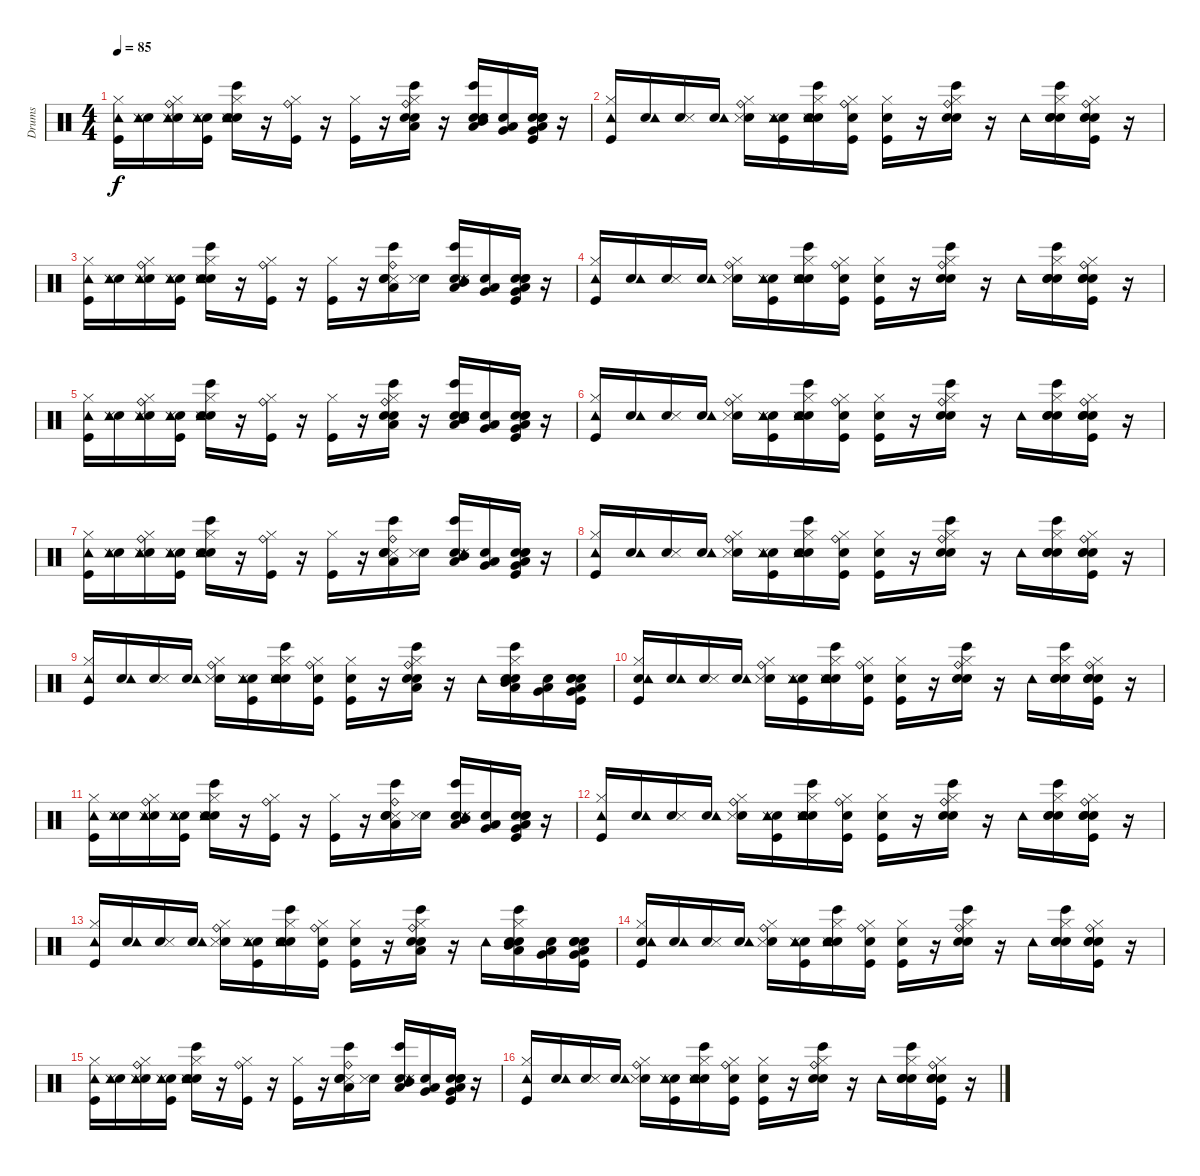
\track ("Drums" "Drums") {instrument percussion}
\staff {score}
\articulation defaults
\ts (4 4)
\tempo 85
\clef neutral
\ks c
("Kick (hit)" "Hi-Hat (closed)" "Tambourine (hit)").16{dy f} ("Snare (hit)" "Metronome (hit)" "Tambourine (hit)").16 ("Snare (hit)" "Metronome (hit)" "Hi-Hat (closed)" "Ride (bell)" "Tambourine (hit)").16 ("Snare (hit)" "Metronome (hit)" "Kick (hit)" "Tambourine (hit)").16 ("Snare (hit)" "Bongo High (hit)" "Metronome (hit)" "Snare (hit) 2" "Hi-Hat (closed)" "Tambourine (hit)").16 r.16 ("Kick (hit)" "Hi-Hat (closed)" "Ride (bell)").16 r.16 ("Kick (hit)" "Hi-Hat (closed)").16 r.16 ("Low Tom (hit)" "Bongo High (hit)" "Snare (hit) 2" "Hand Clap (hit)" "Hi-Hat (closed)" "Ride (bell)").16 r.16 ("Low Tom (hit)" "Mid Tom (hit)" "Bongo High (hit)" "Snare (hit) 2" "Hand Clap (hit)" "Tambourine (hit)").16 ("Snare (hit)" "Low Tom (hit)" "Very Low Tom (hit)").16 ("Snare (hit)" "Very Low Tom (hit)" "Kick (hit)" "Snare (hit) 2" "Hand Clap (hit)" "Low Floor Tom (hit)").16 r.16 |
("Kick (hit)" "Hi-Hat (closed)" "Tambourine (hit)").16 ("Snare (hit)" "Tambourine (hit)").16 ("Snare (hit)" "Metronome (hit)").16 ("Snare (hit)" "Tambourine (hit)").16 ("Snare (hit)" "Metronome (hit)" "Hi-Hat (closed)" "Ride (bell)").16 ("Snare (hit)" "Tambourine (hit)" "Metronome (hit)" "Kick (hit)").16 ("Snare (hit)" "Bongo High (hit)" "Metronome (hit)" "Snare (hit) 2" "Hi-Hat (closed)" "Tambourine (hit)").16 ("Snare (hit)" "Kick (hit)" "Hi-Hat (closed)" "Ride (bell)").16 ("Snare (hit)" "Kick (hit)" "Hi-Hat (closed)").16 r.16 ("Bongo High (hit)" "Snare (hit) 2" "Hand Clap (hit)" "Hi-Hat (closed)" "Ride (bell)").16 r.16 "Tambourine (hit)".16 ("Snare (hit)" "Bongo High (hit)" "Snare (hit) 2" "Hand Clap (hit)" "Hi-Hat (closed)").16 ("Snare (hit)" "Kick (hit)" "Snare (hit) 2" "Hand Clap (hit)" "Hi-Hat (closed)" "Ride (bell)").16 r.16 |
("Kick (hit)" "Hi-Hat (closed)" "Tambourine (hit)").16 ("Snare (hit)" "Metronome (hit)" "Tambourine (hit)").16 ("Snare (hit)" "Metronome (hit)" "Hi-Hat (closed)" "Ride (bell)" "Tambourine (hit)").16 ("Snare (hit)" "Metronome (hit)" "Kick (hit)" "Tambourine (hit)").16 ("Snare (hit)" "Bongo High (hit)" "Metronome (hit)" "Snare (hit) 2" "Hi-Hat (closed)" "Tambourine (hit)").16 r.16 ("Kick (hit)" "Hi-Hat (closed)" "Ride (bell)").16 r.16 ("Kick (hit)" "Hi-Hat (closed)").16 r.16 ("Low Tom (hit)" "Bongo High (hit)" "Metronome (hit)" "Snare (hit) 2" "Hand Clap (hit)" "Ride (bell)").16 ("Snare (hit)" "Metronome (hit)").16 ("Snare (hit)" "Low Tom (hit)" "Mid Tom (hit)" "Bongo High (hit)" "Metronome (hit)" "Tambourine (hit)").16 ("Snare (hit)" "Low Tom (hit)" "Very Low Tom (hit)").16 ("Snare (hit)" "Very Low Tom (hit)" "Kick (hit)" "Snare (hit) 2" "Hand Clap (hit)" "Low Floor Tom (hit)").16 r.16 |
("Kick (hit)" "Hi-Hat (closed)" "Tambourine (hit)").16 ("Snare (hit)" "Tambourine (hit)").16 ("Snare (hit)" "Metronome (hit)").16 ("Snare (hit)" "Tambourine (hit)").16 ("Snare (hit)" "Metronome (hit)" "Hi-Hat (closed)" "Ride (bell)").16 ("Snare (hit)" "Tambourine (hit)" "Metronome (hit)" "Kick (hit)").16 ("Snare (hit)" "Bongo High (hit)" "Metronome (hit)" "Snare (hit) 2" "Hi-Hat (closed)" "Tambourine (hit)").16 ("Snare (hit)" "Kick (hit)" "Hi-Hat (closed)" "Ride (bell)").16 ("Snare (hit)" "Kick (hit)" "Hi-Hat (closed)").16 r.16 ("Bongo High (hit)" "Snare (hit) 2" "Hand Clap (hit)" "Hi-Hat (closed)" "Ride (bell)").16 r.16 "Tambourine (hit)".16 ("Snare (hit)" "Bongo High (hit)" "Snare (hit) 2" "Hand Clap (hit)" "Hi-Hat (closed)").16 ("Snare (hit)" "Kick (hit)" "Snare (hit) 2" "Hand Clap (hit)" "Hi-Hat (closed)" "Ride (bell)").16 r.16 |
("Kick (hit)" "Hi-Hat (closed)" "Tambourine (hit)").16 ("Snare (hit)" "Metronome (hit)" "Tambourine (hit)").16 ("Snare (hit)" "Metronome (hit)" "Hi-Hat (closed)" "Ride (bell)" "Tambourine (hit)").16 ("Snare (hit)" "Metronome (hit)" "Kick (hit)" "Tambourine (hit)").16 ("Snare (hit)" "Bongo High (hit)" "Metronome (hit)" "Snare (hit) 2" "Hi-Hat (closed)" "Tambourine (hit)").16 r.16 ("Kick (hit)" "Hi-Hat (closed)" "Ride (bell)").16 r.16 ("Kick (hit)" "Hi-Hat (closed)").16 r.16 ("Low Tom (hit)" "Bongo High (hit)" "Snare (hit) 2" "Hand Clap (hit)" "Hi-Hat (closed)" "Ride (bell)").16 r.16 ("Low Tom (hit)" "Mid Tom (hit)" "Bongo High (hit)" "Snare (hit) 2" "Hand Clap (hit)" "Tambourine (hit)").16 ("Snare (hit)" "Low Tom (hit)" "Very Low Tom (hit)").16 ("Snare (hit)" "Very Low Tom (hit)" "Kick (hit)" "Snare (hit) 2" "Hand Clap (hit)" "Low Floor Tom (hit)").16 r.16 |
("Kick (hit)" "Hi-Hat (closed)" "Tambourine (hit)").16 ("Snare (hit)" "Tambourine (hit)").16 ("Snare (hit)" "Metronome (hit)").16 ("Snare (hit)" "Tambourine (hit)").16 ("Snare (hit)" "Metronome (hit)" "Hi-Hat (closed)" "Ride (bell)").16 ("Snare (hit)" "Tambourine (hit)" "Metronome (hit)" "Kick (hit)").16 ("Snare (hit)" "Bongo High (hit)" "Metronome (hit)" "Snare (hit) 2" "Hi-Hat (closed)" "Tambourine (hit)").16 ("Snare (hit)" "Kick (hit)" "Hi-Hat (closed)" "Ride (bell)").16 ("Snare (hit)" "Kick (hit)" "Hi-Hat (closed)").16 r.16 ("Bongo High (hit)" "Snare (hit) 2" "Hand Clap (hit)" "Hi-Hat (closed)" "Ride (bell)").16 r.16 "Tambourine (hit)".16 ("Snare (hit)" "Bongo High (hit)" "Snare (hit) 2" "Hand Clap (hit)" "Hi-Hat (closed)").16 ("Snare (hit)" "Kick (hit)" "Snare (hit) 2" "Hand Clap (hit)" "Hi-Hat (closed)" "Ride (bell)").16 r.16 |
("Kick (hit)" "Hi-Hat (closed)" "Tambourine (hit)").16 ("Snare (hit)" "Metronome (hit)" "Tambourine (hit)").16 ("Snare (hit)" "Metronome (hit)" "Hi-Hat (closed)" "Ride (bell)" "Tambourine (hit)").16 ("Snare (hit)" "Metronome (hit)" "Kick (hit)" "Tambourine (hit)").16 ("Snare (hit)" "Bongo High (hit)" "Metronome (hit)" "Snare (hit) 2" "Hi-Hat (closed)" "Tambourine (hit)").16 r.16 ("Kick (hit)" "Hi-Hat (closed)" "Ride (bell)").16 r.16 ("Kick (hit)" "Hi-Hat (closed)").16 r.16 ("Low Tom (hit)" "Bongo High (hit)" "Metronome (hit)" "Snare (hit) 2" "Hand Clap (hit)" "Ride (bell)").16 ("Snare (hit)" "Metronome (hit)").16 ("Snare (hit)" "Low Tom (hit)" "Mid Tom (hit)" "Bongo High (hit)" "Metronome (hit)" "Tambourine (hit)").16 ("Snare (hit)" "Low Tom (hit)" "Very Low Tom (hit)").16 ("Snare (hit)" "Very Low Tom (hit)" "Kick (hit)" "Snare (hit) 2" "Hand Clap (hit)" "Low Floor Tom (hit)").16 r.16 |
("Kick (hit)" "Hi-Hat (closed)" "Tambourine (hit)").16 ("Snare (hit)" "Tambourine (hit)").16 ("Snare (hit)" "Metronome (hit)").16 ("Snare (hit)" "Tambourine (hit)").16 ("Snare (hit)" "Metronome (hit)" "Hi-Hat (closed)" "Ride (bell)").16 ("Snare (hit)" "Tambourine (hit)" "Metronome (hit)" "Kick (hit)").16 ("Snare (hit)" "Bongo High (hit)" "Metronome (hit)" "Snare (hit) 2" "Hi-Hat (closed)" "Tambourine (hit)").16 ("Snare (hit)" "Kick (hit)" "Hi-Hat (closed)" "Ride (bell)").16 ("Snare (hit)" "Kick (hit)" "Hi-Hat (closed)").16 r.16 ("Bongo High (hit)" "Snare (hit) 2" "Hand Clap (hit)" "Hi-Hat (closed)" "Ride (bell)").16 r.16 "Tambourine (hit)".16 ("Snare (hit)" "Bongo High (hit)" "Snare (hit) 2" "Hand Clap (hit)" "Hi-Hat (closed)").16 ("Snare (hit)" "Kick (hit)" "Snare (hit) 2" "Hand Clap (hit)" "Hi-Hat (closed)" "Ride (bell)").16 r.16 |
("Kick (hit)" "Hi-Hat (closed)" "Tambourine (hit)").16 ("Snare (hit)" "Tambourine (hit)").16 ("Snare (hit)" "Metronome (hit)").16 ("Snare (hit)" "Tambourine (hit)").16 ("Snare (hit)" "Metronome (hit)" "Hi-Hat (closed)" "Ride (bell)").16 ("Snare (hit)" "Tambourine (hit)" "Metronome (hit)" "Kick (hit)").16 ("Snare (hit)" "Bongo High (hit)" "Metronome (hit)" "Snare (hit) 2" "Hi-Hat (closed)" "Tambourine (hit)").16 ("Snare (hit)" "Kick (hit)" "Hi-Hat (closed)" "Ride (bell)").16 ("Snare (hit)" "Kick (hit)" "Hi-Hat (closed)").16 r.16 ("Low Tom (hit)" "Bongo High (hit)" "Snare (hit) 2" "Hand Clap (hit)" "Hi-Hat (closed)" "Ride (bell)").16 r.16 "Tambourine (hit)".16 ("Snare (hit)" "Low Tom (hit)" "Mid Tom (hit)" "Bongo High (hit)" "Snare (hit) 2" "Hi-Hat (closed)").16 ("Snare (hit)" "Low Tom (hit)" "Very Low Tom (hit)").16 ("Snare (hit)" "Very Low Tom (hit)" "Kick (hit)" "Snare (hit) 2" "Hand Clap (hit)" "Low Floor Tom (hit)").16 |
("Snare (hit)" "Kick (hit)" "Hi-Hat (closed)" "Tambourine (hit)").16 ("Snare (hit)" "Tambourine (hit)").16 ("Snare (hit)" "Metronome (hit)").16 ("Snare (hit)" "Tambourine (hit)").16 ("Snare (hit)" "Metronome (hit)" "Hi-Hat (closed)" "Ride (bell)").16 ("Snare (hit)" "Tambourine (hit)" "Metronome (hit)" "Kick (hit)").16 ("Snare (hit)" "Bongo High (hit)" "Metronome (hit)" "Snare (hit) 2" "Hi-Hat (closed)" "Tambourine (hit)").16 ("Snare (hit)" "Kick (hit)" "Hi-Hat (closed)" "Ride (bell)").16 ("Snare (hit)" "Kick (hit)" "Hi-Hat (closed)").16 r.16 ("Bongo High (hit)" "Snare (hit) 2" "Hand Clap (hit)" "Hi-Hat (closed)" "Ride (bell)").16 r.16 "Tambourine (hit)".16 ("Snare (hit)" "Bongo High (hit)" "Snare (hit) 2" "Hand Clap (hit)" "Hi-Hat (closed)").16 ("Snare (hit)" "Kick (hit)" "Snare (hit) 2" "Hand Clap (hit)" "Hi-Hat (closed)" "Ride (bell)").16 r.16 |
("Kick (hit)" "Hi-Hat (closed)" "Tambourine (hit)").16 ("Snare (hit)" "Metronome (hit)" "Tambourine (hit)").16 ("Snare (hit)" "Metronome (hit)" "Hi-Hat (closed)" "Ride (bell)" "Tambourine (hit)").16 ("Snare (hit)" "Metronome (hit)" "Kick (hit)" "Tambourine (hit)").16 ("Snare (hit)" "Bongo High (hit)" "Metronome (hit)" "Snare (hit) 2" "Hi-Hat (closed)" "Tambourine (hit)").16 r.16 ("Kick (hit)" "Hi-Hat (closed)" "Ride (bell)").16 r.16 ("Kick (hit)" "Hi-Hat (closed)").16 r.16 ("Low Tom (hit)" "Bongo High (hit)" "Metronome (hit)" "Snare (hit) 2" "Hand Clap (hit)" "Ride (bell)").16 ("Snare (hit)" "Metronome (hit)").16 ("Snare (hit)" "Low Tom (hit)" "Mid Tom (hit)" "Bongo High (hit)" "Metronome (hit)" "Tambourine (hit)").16 ("Snare (hit)" "Low Tom (hit)" "Very Low Tom (hit)").16 ("Snare (hit)" "Very Low Tom (hit)" "Kick (hit)" "Snare (hit) 2" "Hand Clap (hit)" "Low Floor Tom (hit)").16 r.16 |
("Kick (hit)" "Hi-Hat (closed)" "Tambourine (hit)").16 ("Snare (hit)" "Tambourine (hit)").16 ("Snare (hit)" "Metronome (hit)").16 ("Snare (hit)" "Tambourine (hit)").16 ("Snare (hit)" "Metronome (hit)" "Hi-Hat (closed)" "Ride (bell)").16 ("Snare (hit)" "Tambourine (hit)" "Metronome (hit)" "Kick (hit)").16 ("Snare (hit)" "Bongo High (hit)" "Metronome (hit)" "Snare (hit) 2" "Hi-Hat (closed)" "Tambourine (hit)").16 ("Snare (hit)" "Kick (hit)" "Hi-Hat (closed)" "Ride (bell)").16 ("Snare (hit)" "Kick (hit)" "Hi-Hat (closed)").16 r.16 ("Bongo High (hit)" "Snare (hit) 2" "Hand Clap (hit)" "Hi-Hat (closed)" "Ride (bell)").16 r.16 "Tambourine (hit)".16 ("Snare (hit)" "Bongo High (hit)" "Snare (hit) 2" "Hand Clap (hit)" "Hi-Hat (closed)").16 ("Snare (hit)" "Kick (hit)" "Snare (hit) 2" "Hand Clap (hit)" "Hi-Hat (closed)" "Ride (bell)").16 r.16 |
("Kick (hit)" "Hi-Hat (closed)" "Tambourine (hit)").16 ("Snare (hit)" "Tambourine (hit)").16 ("Snare (hit)" "Metronome (hit)").16 ("Snare (hit)" "Tambourine (hit)").16 ("Snare (hit)" "Metronome (hit)" "Hi-Hat (closed)" "Ride (bell)").16 ("Snare (hit)" "Tambourine (hit)" "Metronome (hit)" "Kick (hit)").16 ("Snare (hit)" "Bongo High (hit)" "Metronome (hit)" "Snare (hit) 2" "Hi-Hat (closed)" "Tambourine (hit)").16 ("Snare (hit)" "Kick (hit)" "Hi-Hat (closed)" "Ride (bell)").16 ("Snare (hit)" "Kick (hit)" "Hi-Hat (closed)").16 r.16 ("Low Tom (hit)" "Bongo High (hit)" "Snare (hit) 2" "Hand Clap (hit)" "Hi-Hat (closed)" "Ride (bell)").16 r.16 "Tambourine (hit)".16 ("Snare (hit)" "Low Tom (hit)" "Mid Tom (hit)" "Bongo High (hit)" "Snare (hit) 2" "Hi-Hat (closed)").16 ("Snare (hit)" "Low Tom (hit)" "Very Low Tom (hit)").16 ("Snare (hit)" "Very Low Tom (hit)" "Kick (hit)" "Snare (hit) 2" "Hand Clap (hit)" "Low Floor Tom (hit)").16 |
("Snare (hit)" "Kick (hit)" "Hi-Hat (closed)" "Tambourine (hit)").16 ("Snare (hit)" "Tambourine (hit)").16 ("Snare (hit)" "Metronome (hit)").16 ("Snare (hit)" "Tambourine (hit)").16 ("Snare (hit)" "Metronome (hit)" "Hi-Hat (closed)" "Ride (bell)").16 ("Snare (hit)" "Tambourine (hit)" "Metronome (hit)" "Kick (hit)").16 ("Snare (hit)" "Bongo High (hit)" "Metronome (hit)" "Snare (hit) 2" "Hi-Hat (closed)" "Tambourine (hit)").16 ("Snare (hit)" "Kick (hit)" "Hi-Hat (closed)" "Ride (bell)").16 ("Snare (hit)" "Kick (hit)" "Hi-Hat (closed)").16 r.16 ("Bongo High (hit)" "Snare (hit) 2" "Hand Clap (hit)" "Hi-Hat (closed)" "Ride (bell)").16 r.16 "Tambourine (hit)".16 ("Snare (hit)" "Bongo High (hit)" "Snare (hit) 2" "Hand Clap (hit)" "Hi-Hat (closed)").16 ("Snare (hit)" "Kick (hit)" "Snare (hit) 2" "Hand Clap (hit)" "Hi-Hat (closed)" "Ride (bell)").16 r.16 |
("Kick (hit)" "Hi-Hat (closed)" "Tambourine (hit)").16 ("Snare (hit)" "Metronome (hit)" "Tambourine (hit)").16 ("Snare (hit)" "Metronome (hit)" "Hi-Hat (closed)" "Ride (bell)" "Tambourine (hit)").16 ("Snare (hit)" "Metronome (hit)" "Kick (hit)" "Tambourine (hit)").16 ("Snare (hit)" "Bongo High (hit)" "Metronome (hit)" "Snare (hit) 2" "Hi-Hat (closed)" "Tambourine (hit)").16 r.16 ("Kick (hit)" "Hi-Hat (closed)" "Ride (bell)").16 r.16 ("Kick (hit)" "Hi-Hat (closed)").16 r.16 ("Low Tom (hit)" "Bongo High (hit)" "Metronome (hit)" "Snare (hit) 2" "Hand Clap (hit)" "Ride (bell)").16 ("Snare (hit)" "Metronome (hit)").16 ("Snare (hit)" "Low Tom (hit)" "Mid Tom (hit)" "Bongo High (hit)" "Metronome (hit)" "Tambourine (hit)").16 ("Snare (hit)" "Low Tom (hit)" "Very Low Tom (hit)").16 ("Snare (hit)" "Very Low Tom (hit)" "Kick (hit)" "Snare (hit) 2" "Hand Clap (hit)" "Low Floor Tom (hit)").16 r.16 |
("Kick (hit)" "Hi-Hat (closed)" "Tambourine (hit)").16 ("Snare (hit)" "Tambourine (hit)").16 ("Snare (hit)" "Metronome (hit)").16 ("Snare (hit)" "Tambourine (hit)").16 ("Snare (hit)" "Metronome (hit)" "Hi-Hat (closed)" "Ride (bell)").16 ("Snare (hit)" "Tambourine (hit)" "Metronome (hit)" "Kick (hit)").16 ("Snare (hit)" "Bongo High (hit)" "Metronome (hit)" "Snare (hit) 2" "Hi-Hat (closed)" "Tambourine (hit)").16 ("Snare (hit)" "Kick (hit)" "Hi-Hat (closed)" "Ride (bell)").16 ("Snare (hit)" "Kick (hit)" "Hi-Hat (closed)").16 r.16 ("Bongo High (hit)" "Snare (hit) 2" "Hand Clap (hit)" "Hi-Hat (closed)" "Ride (bell)").16 r.16 "Tambourine (hit)".16 ("Snare (hit)" "Bongo High (hit)" "Snare (hit) 2" "Hand Clap (hit)" "Hi-Hat (closed)").16 ("Snare (hit)" "Kick (hit)" "Snare (hit) 2" "Hand Clap (hit)" "Hi-Hat (closed)" "Ride (bell)").16 r.16
